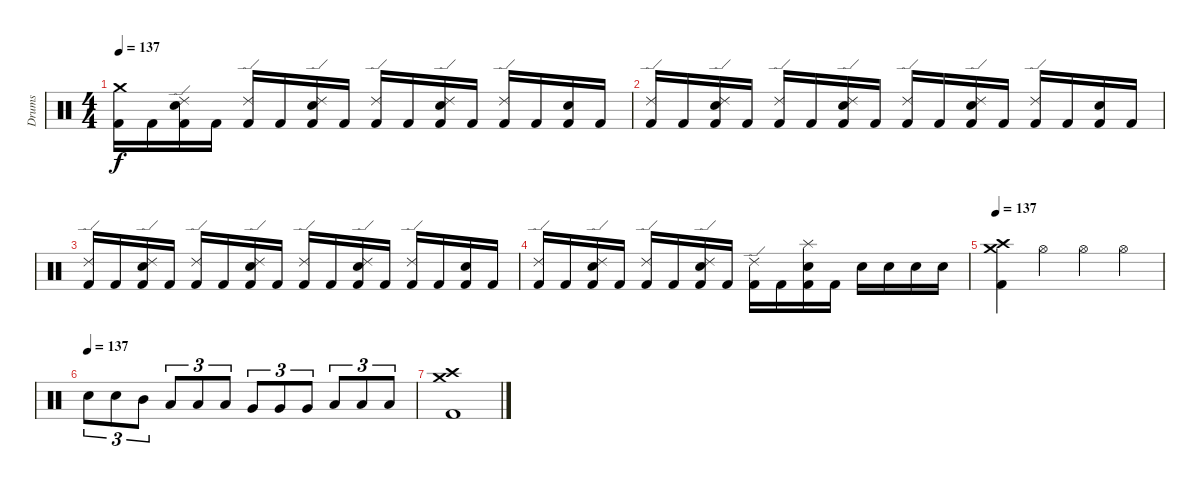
\track ("Drums" "Drums") {instrument percussion}
\staff {score}
\articulation defaults
\ts (4 4)
\tempo 137
\clef neutral
\ks c
("Crash medium (hit)" "Kick (hit) 2").16{dy f} "Kick (hit) 2".16 ("Ride (edge) 2" "Snare (hit) 2" "Kick (hit) 2").16 "Kick (hit) 2".16 ("Ride (edge) 2" "Kick (hit) 2").16 "Kick (hit) 2".16 ("Ride (edge) 2" "Snare (hit) 2" "Kick (hit) 2").16 "Kick (hit) 2".16 ("Ride (edge) 2" "Kick (hit) 2").16 "Kick (hit) 2".16 ("Ride (edge) 2" "Snare (hit) 2" "Kick (hit) 2").16 "Kick (hit) 2".16 ("Ride (edge) 2" "Kick (hit) 2").16 "Kick (hit) 2".16 ("Snare (hit) 2" "Kick (hit) 2").16 "Kick (hit) 2".16 |
("Ride (edge) 2" "Kick (hit) 2").16 "Kick (hit) 2".16 ("Ride (edge) 2" "Snare (hit) 2" "Kick (hit) 2").16 "Kick (hit) 2".16 ("Ride (edge) 2" "Kick (hit) 2").16 "Kick (hit) 2".16 ("Ride (edge) 2" "Snare (hit) 2" "Kick (hit) 2").16 "Kick (hit) 2".16 ("Ride (edge) 2" "Kick (hit) 2").16 "Kick (hit) 2".16 ("Ride (edge) 2" "Snare (hit) 2" "Kick (hit) 2").16 "Kick (hit) 2".16 ("Ride (edge) 2" "Kick (hit) 2").16 "Kick (hit) 2".16 ("Snare (hit) 2" "Kick (hit) 2").16 "Kick (hit) 2".16 |
("Ride (edge) 2" "Kick (hit) 2").16 "Kick (hit) 2".16 ("Ride (edge) 2" "Snare (hit) 2" "Kick (hit) 2").16 "Kick (hit) 2".16 ("Ride (edge) 2" "Kick (hit) 2").16 "Kick (hit) 2".16 ("Ride (edge) 2" "Snare (hit) 2" "Kick (hit) 2").16 "Kick (hit) 2".16 ("Ride (edge) 2" "Kick (hit) 2").16 "Kick (hit) 2".16 ("Ride (edge) 2" "Snare (hit) 2" "Kick (hit) 2").16 "Kick (hit) 2".16 ("Ride (edge) 2" "Kick (hit) 2").16 "Kick (hit) 2".16 ("Snare (hit) 2" "Kick (hit) 2").16 "Kick (hit) 2".16 |
("Ride (edge) 2" "Kick (hit) 2").16 "Kick (hit) 2".16 ("Ride (edge) 2" "Snare (hit) 2" "Kick (hit) 2").16 "Kick (hit) 2".16 ("Ride (edge) 2" "Kick (hit) 2").16 "Kick (hit) 2".16 ("Ride (edge) 2" "Snare (hit) 2" "Kick (hit) 2").16 "Kick (hit) 2".16 ("Ride (edge) 2" "Kick (hit) 2").16 "Kick (hit) 2".16 ("Splash (hit)" "Snare (hit) 2" "Kick (hit) 2").16 "Kick (hit) 2".16 "Snare (hit) 2".16 "Snare (hit) 2".16 "Snare (hit) 2".16 "Snare (hit) 2".16 |
\tempo 137
("Crash high (hit)" "Crash medium (hit)" "Kick (hit) 2").4 "Hi-Hat (open)".4 "Hi-Hat (open)".4 "Hi-Hat (open)".4 |
\tempo (137)
"Snare (hit) 2".8{tu (3 2)} "Snare (hit) 2".8{tu (3 2)} "Mid Tom (hit)".8{tu (3 2)} "Low Tom (hit)".8{tu (3 2)} "Low Tom (hit)".8{tu (3 2)} "Low Tom (hit)".8{tu (3 2)} "Very Low Tom (hit)".8{tu (3 2)} "Very Low Tom (hit)".8{tu (3 2)} "Very Low Tom (hit)".8{tu (3 2)} "Low Floor Tom (hit)".8{tu (3 2)} "Low Floor Tom (hit)".8{tu (3 2)} "Low Floor Tom (hit)".8{tu (3 2)} |
("Crash high (hit)" "Crash medium (hit)" "Kick (hit) 2").1
